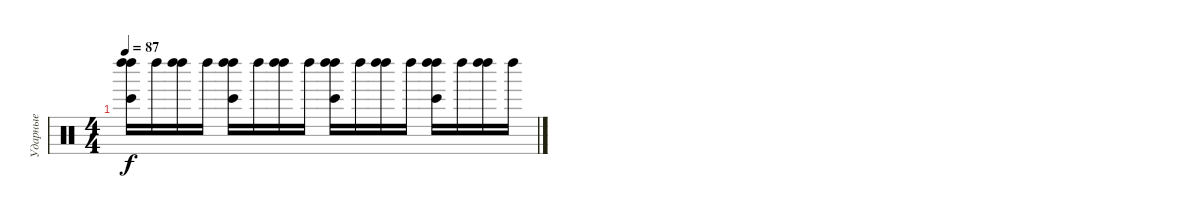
\track ("Ударные" "Ударные") {instrument percussion}
\staff {score}
\articulation defaults
\ts (4 4)
\tempo 87
\clef neutral
\ks c
("Left Maraca (hit)" "Left Maraca (hit)" "Bongo High (hit)").16{dy f} "Left Maraca (hit)".16 ("Left Maraca (hit)" "Left Maraca (hit)").16 "Left Maraca (hit)".16 ("Left Maraca (hit)" "Left Maraca (hit)" "Bongo High (hit)").16 "Left Maraca (hit)".16 ("Left Maraca (hit)" "Left Maraca (hit)").16 "Left Maraca (hit)".16 ("Left Maraca (hit)" "Left Maraca (hit)" "Bongo High (hit)").16 "Left Maraca (hit)".16 ("Left Maraca (hit)" "Left Maraca (hit)").16 "Left Maraca (hit)".16 ("Left Maraca (hit)" "Left Maraca (hit)" "Bongo High (hit)").16 "Left Maraca (hit)".16 ("Left Maraca (hit)" "Left Maraca (hit)").16 "Left Maraca (hit)".16
